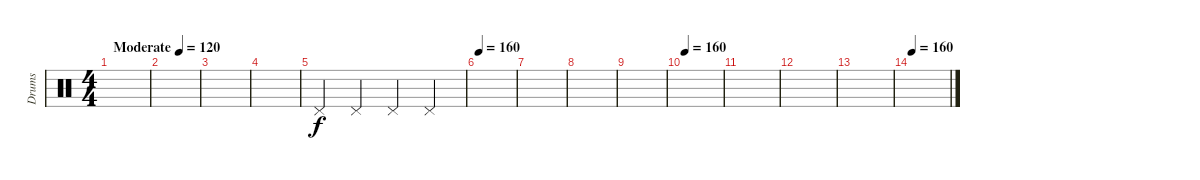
\track ("Drums" "Drums") {instrument percussion}
\staff {score}
\articulation defaults
\ts (4 4)
\tempo (120 "Moderate")
\clef neutral
\ks c
|
|
|
|
"Pedal Hi-Hat (hit)".4 "Pedal Hi-Hat (hit)".4 "Pedal Hi-Hat (hit)".4 "Pedal Hi-Hat (hit)".4 |
\tempo 160
|
|
|
|
\tempo 160
|
|
|
|
\tempo 160
